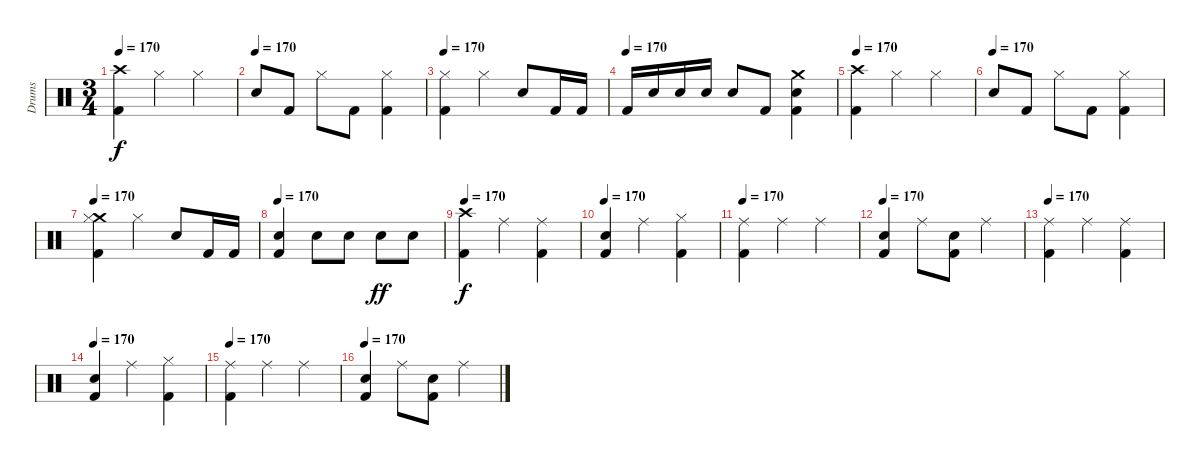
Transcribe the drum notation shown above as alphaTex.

\track ("Drums" "Drums") {instrument percussion}
\staff {score}
\articulation defaults
\ts (3 4)
\tempo 170
\clef neutral
\ks c
("Crash high (hit)" "Kick (hit) 2").4{dy f} "Hi-Hat (closed)".4 "Hi-Hat (closed)".4 |
\tempo (170)
"Electric Snare (hit)".8 "Kick (hit) 2".8 "Hi-Hat (closed)".8 "Kick (hit) 2".8 ("Hi-Hat (closed)" "Kick (hit) 2").4 |
\tempo 170
("Hi-Hat (closed)" "Kick (hit) 2").4 "Hi-Hat (closed)".4 "Electric Snare (hit)".8 "Kick (hit) 2".16 "Kick (hit) 2".16 |
\tempo (170)
"Kick (hit) 2".16 "Electric Snare (hit)".16 "Electric Snare (hit)".16 "Electric Snare (hit)".16 "Electric Snare (hit)".8 "Kick (hit) 2".8 ("Crash medium (hit)" "Electric Snare (hit)" "Kick (hit) 2").4 |
\tempo 170
("Crash high (hit)" "Kick (hit) 2").4 "Hi-Hat (closed)".4 "Hi-Hat (closed)".4 |
\tempo (170)
"Electric Snare (hit)".8 "Kick (hit) 2".8 "Hi-Hat (closed)".8 "Kick (hit) 2".8 ("Hi-Hat (closed)" "Kick (hit) 2").4 |
\tempo 170
("Crash medium (hit)" "Hi-Hat (closed)" "Kick (hit) 2").4 "Hi-Hat (closed)".4 "Electric Snare (hit)".8 "Kick (hit) 2".16 "Kick (hit) 2".16 |
\tempo 170
("Electric Snare (hit)" "Kick (hit) 2").4 "Electric Snare (hit)".8 "Electric Snare (hit)".8 "Electric Snare (hit)".8{dy ff} "Electric Snare (hit)".8 |
\tempo 170
("Crash high (hit)" "Kick (hit) 2").4{dy f} "Ride (middle)".4 ("Ride (middle)" "Kick (hit) 2").4 |
\tempo 170
("Electric Snare (hit)" "Kick (hit) 2").4 "Ride (middle)".4 ("Hi-Hat (closed)" "Kick (hit) 2").4 |
\tempo 170
("Ride (middle)" "Kick (hit) 2").4 "Ride (middle)".4 "Ride (middle)".4 |
\tempo 170
("Electric Snare (hit)" "Kick (hit) 2").4 "Ride (middle)".8 ("Electric Snare (hit)" "Kick (hit) 2").8 "Ride (middle)".4 |
\tempo 170
("Ride (middle)" "Kick (hit) 2").4 "Ride (middle)".4 ("Ride (middle)" "Kick (hit) 2").4 |
\tempo 170
("Electric Snare (hit)" "Kick (hit) 2").4 "Ride (middle)".4 ("Hi-Hat (closed)" "Kick (hit) 2").4 |
\tempo 170
("Ride (middle)" "Kick (hit) 2").4 "Ride (middle)".4 "Ride (middle)".4 |
\tempo 170
("Electric Snare (hit)" "Kick (hit) 2").4 "Ride (middle)".8 ("Electric Snare (hit)" "Kick (hit) 2").8 "Ride (middle)".4
